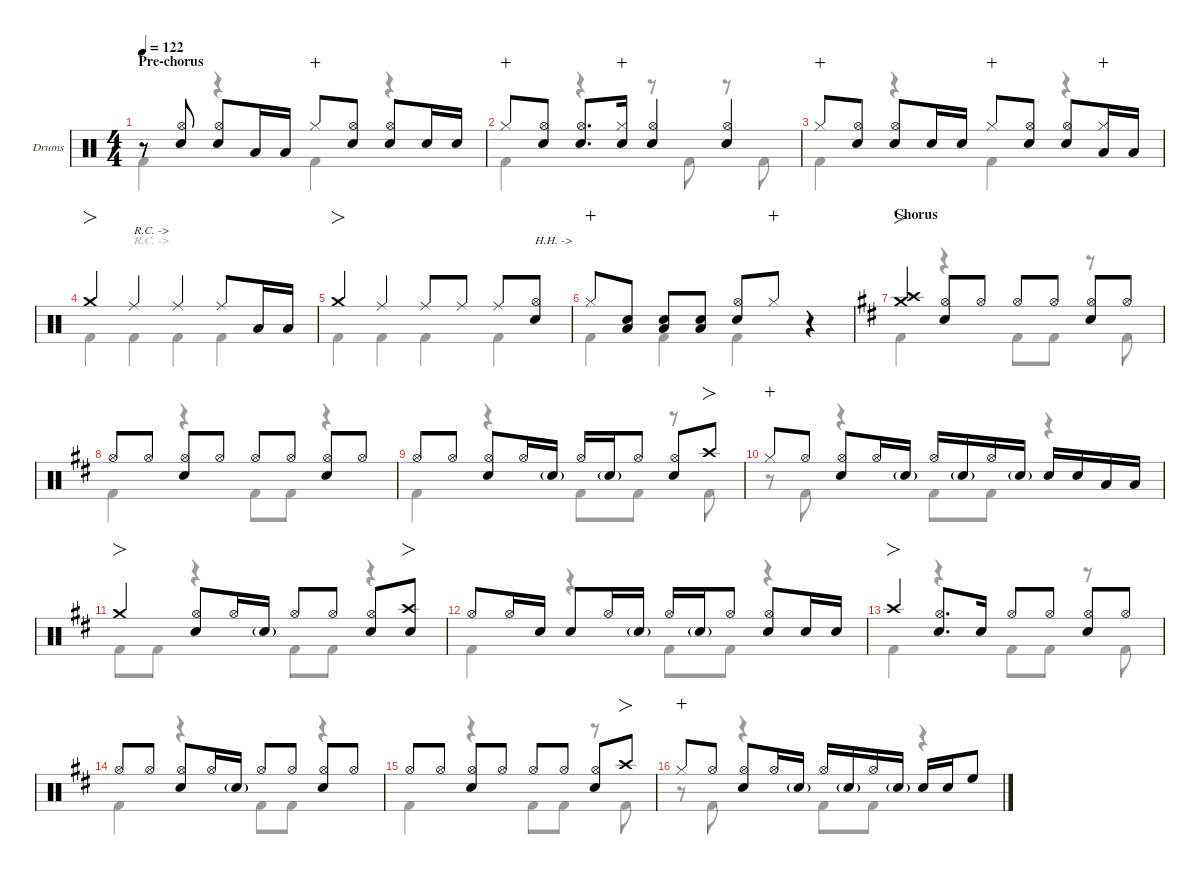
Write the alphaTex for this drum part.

\defaultSystemsLayout 4
\hideDynamics
\bracketExtendMode nobrackets
\firstSystemTrackNameOrientation horizontal
\track ("Drums" "Drums") {defaultSystemsLayout 4 instrument percussion}
\staff {score}
\articulation defaults
\voice
\ts (4 4)
\section ("" "Pre-chorus")
\tempo 122
\clef neutral
\scale
0.348105
\ks c
r.8{dy f beam Up} ("Hi-Hat (open)" "Snare (hit) 2").8{beam Up beam split} ("Hi-Hat (open)" "Snare (hit) 2").8{beam Up} "Low Tom (hit)".16{beam Up} "Low Tom (hit)".16{beam Up} "Hi-Hat (closed)".8{dy mp wahc beam Up} ("Hi-Hat (open)" "Snare (hit) 2").8{dy f beam Up beam split} ("Hi-Hat (open)" "Snare (hit) 2").8{beam Up} "Snare (hit) 2".16{beam Up} "Snare (hit) 2".16{dy mf beam Up} |
\scale
0.325947 "Hi-Hat (closed)".8{dy mp wahc beam Up} ("Hi-Hat (open)" "Snare (hit) 2").8{dy f beam Up beam split} ("Hi-Hat (open)" "Snare (hit) 2").8{d beam Up} ("Snare (hit) 2" "Hi-Hat (closed)").16{dy mf wahc beam Up} ("Hi-Hat (open)" "Snare (hit) 2").4{dy f beam Up} ("Hi-Hat (open)" "Snare (hit) 2").4{beam Up} |
\scale
0.325947 "Hi-Hat (closed)".8{dy mp wahc beam Up} ("Hi-Hat (open)" "Snare (hit) 2").8{dy f beam Up beam split} ("Hi-Hat (open)" "Snare (hit) 2").8{beam Up} "Snare (hit) 2".16{beam Up} "Snare (hit) 2".16{dy mf beam Up} "Hi-Hat (closed)".8{dy mp wahc beam Up} ("Hi-Hat (open)" "Snare (hit) 2").8{dy f beam Up beam split} ("Hi-Hat (open)" "Snare (hit) 2").8{beam Up} ("Low Tom (hit)" "Hi-Hat (closed)").16{wahc beam Up} "Low Tom (hit)".16{beam Up} |
\scale
0.348105 "Crash medium (hit)".4{fo beam Up} "Ride (middle)".4{txt "R.C. ->" beam Up} "Ride (middle)".4{beam Up} "Ride (middle)".8{beam Up} "Low Tom (hit)".16{beam Up} "Low Tom (hit)".16{beam Up} |
\scale
0.325947 "Crash medium (hit)".4{fo beam Up} "Ride (middle)".4{beam Up} "Ride (middle)".8{beam Up} "Ride (middle)".8{dy mf beam Up} "Ride (middle)".8{dy f beam Up} ("Hi-Hat (open)" "Snare (hit) 2").8{txt "H.H. ->" beam Up} |
\scale
0.325947 "Hi-Hat (closed)".8{dy mp wahc beam Up} ("Snare (hit) 2" "Low Tom (hit)").8{dy f beam Up} ("Snare (hit) 2" "Low Tom (hit)").8{beam Up} ("Snare (hit) 2" "Low Tom (hit)").8{beam Up} ("Hi-Hat (open)" "Snare (hit) 2").8{beam Up} "Hi-Hat (closed)".8{dy mp wahc beam Up} r.4{beam Up} |
\section ("" "Chorus")
\scale
0.266618
\ks d
("Crash high (hit)"{acc forcenatural} "Crash medium (hit)"{acc forcenatural}).4{fo dy f beam Up} ("Hi-Hat (open)"{acc forcenatural} "Snare (hit) 2"{acc forcenatural}).8{beam Up} "Hi-Hat (open)"{acc forcenatural}.8{dy mf beam Up} "Hi-Hat (open)"{acc forcenatural}.8{dy f beam Up} "Hi-Hat (open)"{acc forcenatural}.8{dy mf beam Up} ("Hi-Hat (open)"{acc forcenatural} "Snare (hit) 2"{acc forcenatural}).8{dy f beam Up} "Hi-Hat (open)"{acc forcenatural}.8{dy mf beam Up} |
\scale
0.244461 "Hi-Hat (open)"{acc forcenatural}.8{dy f beam Up} "Hi-Hat (open)"{acc forcenatural}.8{dy mf beam Up} ("Hi-Hat (open)"{acc forcenatural} "Snare (hit) 2"{acc forcenatural}).8{dy f beam Up} "Hi-Hat (open)"{acc forcenatural}.8{dy mf beam Up} "Hi-Hat (open)"{acc forcenatural}.8{dy f beam Up} "Hi-Hat (open)"{acc forcenatural}.8{dy mf beam Up} ("Hi-Hat (open)"{acc forcenatural} "Snare (hit) 2"{acc forcenatural}).8{dy f beam Up} "Hi-Hat (open)"{acc forcenatural}.8{dy mf beam Up} |
\scale
0.24446 "Hi-Hat (open)"{acc forcenatural}.8{dy f beam Up} "Hi-Hat (open)"{acc forcenatural}.8{dy mf beam Up beam split} ("Hi-Hat (open)"{acc forcenatural} "Snare (hit) 2"{acc forcenatural}).8{dy f beam Up} "Hi-Hat (open)"{acc forcenatural}.16{dy mf beam Up} "Snare (hit) 2"{g acc forcenatural}.16{beam Up} "Hi-Hat (open)"{acc forcenatural}.16{dy f beam Up} "Snare (hit) 2"{g acc forcenatural}.16{dy mf beam Up} "Hi-Hat (open)"{acc forcenatural}.8{beam Up beam split} ("Hi-Hat (open)"{acc forcenatural} "Snare (hit) 2"{acc forcenatural}).8{dy f beam Up} "Crash high (hit)"{acc forcenatural}.8{fo beam Up} |
\scale
0.244461 "Hi-Hat (closed)"{acc forcenatural}.8{dy mp wahc beam Up} "Hi-Hat (open)"{acc forcenatural}.8{dy mf beam Up beam split} ("Hi-Hat (open)"{acc forcenatural} "Snare (hit) 2"{acc forcenatural}).8{dy f beam Up} "Hi-Hat (open)"{acc forcenatural}.16{dy mf beam Up} "Snare (hit) 2"{g acc forcenatural}.16{beam Up} "Hi-Hat (open)"{acc forcenatural}.16{dy f beam Up} "Snare (hit) 2"{g acc forcenatural}.16{dy mf beam Up} "Hi-Hat (open)"{acc forcenatural}.16{beam Up beam merge} "Snare (hit) 2"{g acc forcenatural}.16{beam Up beam split} "Snare (hit) 2"{acc forcenatural}.16{dy f beam Up} "Snare (hit) 2"{acc forcenatural}.16{dy mf beam Up} "Low Tom (hit)"{acc forcenatural}.16{beam Up} "Low Tom (hit)"{acc forcenatural}.16{beam Up} |
\scale
0.511079 "Crash medium (hit)"{acc forcenatural}.4{fo dy f beam Up} ("Hi-Hat (open)"{acc forcenatural} "Snare (hit) 2"{acc forcenatural}).8{beam Up} "Hi-Hat (open)"{acc forcenatural}.16{dy mf beam Up} "Snare (hit) 2"{g acc forcenatural}.16{beam Up} "Hi-Hat (open)"{acc forcenatural}.8{dy f beam Up} "Hi-Hat (open)"{acc forcenatural}.8{dy mf beam Up} ("Hi-Hat (open)"{acc forcenatural} "Snare (hit) 2"{acc forcenatural}).8{dy f beam Up} ("Snare (hit) 2"{acc forcenatural} "Crash high (hit)"{acc forcenatural}).8{fo beam Up} |
\scale
0.488921 "Hi-Hat (open)"{acc forcenatural}.8{beam Up} "Hi-Hat (open)"{acc forcenatural}.16{dy mf beam Up} "Snare (hit) 2"{acc forcenatural}.16{beam Up beam split} "Snare (hit) 2"{acc forcenatural}.8{dy f beam Up} "Hi-Hat (open)"{acc forcenatural}.16{dy mf beam Up} "Snare (hit) 2"{g acc forcenatural}.16{beam Up} "Hi-Hat (open)"{acc forcenatural}.16{dy f beam Up} "Snare (hit) 2"{g acc forcenatural}.16{dy mf beam Up} "Hi-Hat (open)"{acc forcenatural}.8{beam Up beam split} ("Hi-Hat (open)"{acc forcenatural} "Snare (hit) 2"{acc forcenatural}).8{dy f beam Up} "Snare (hit) 2"{acc forcenatural}.16{beam Up} "Snare (hit) 2"{acc forcenatural}.16{dy mf beam Up} |
\scale
0.266618 "Crash high (hit)"{acc forcenatural}.4{fo dy f beam Up} ("Hi-Hat (open)"{acc forcenatural} "Snare (hit) 2"{acc forcenatural}).8{d beam Up} "Snare (hit) 2"{acc forcenatural}.16{beam Up} "Hi-Hat (open)"{acc forcenatural}.8{beam Up} "Hi-Hat (open)"{acc forcenatural}.8{dy mf beam Up} ("Hi-Hat (open)"{acc forcenatural} "Snare (hit) 2"{acc forcenatural}).8{dy f beam Up} "Hi-Hat (open)"{acc forcenatural}.8{dy mf beam Up} |
\scale
0.244461 "Hi-Hat (open)"{acc forcenatural}.8{dy f beam Up} "Hi-Hat (open)"{acc forcenatural}.8{dy mf beam Up beam split} ("Hi-Hat (open)"{acc forcenatural} "Snare (hit) 2"{acc forcenatural}).8{dy f beam Up} "Hi-Hat (open)"{acc forcenatural}.16{dy mf beam Up} "Snare (hit) 2"{g acc forcenatural}.16{beam Up} "Hi-Hat (open)"{acc forcenatural}.8{dy f beam Up} "Hi-Hat (open)"{acc forcenatural}.8{dy mf beam Up} ("Hi-Hat (open)"{acc forcenatural} "Snare (hit) 2"{acc forcenatural}).8{dy f beam Up} "Hi-Hat (open)"{acc forcenatural}.8{dy mf beam Up} |
\scale
0.24446 "Hi-Hat (open)"{acc forcenatural}.8{dy f beam Up} "Hi-Hat (open)"{acc forcenatural}.8{dy mf beam Up} ("Hi-Hat (open)"{acc forcenatural} "Snare (hit) 2"{acc forcenatural}).8{dy f beam Up} "Hi-Hat (open)"{acc forcenatural}.8{dy mf beam Up} "Hi-Hat (open)"{acc forcenatural}.8{dy f beam Up} "Hi-Hat (open)"{acc forcenatural}.8{dy mf beam Up} ("Hi-Hat (open)"{acc forcenatural} "Snare (hit) 2"{acc forcenatural}).8{dy f beam Up} "Crash high (hit)"{acc forcenatural}.8{fo beam Up} |
\scale
0.244461 "Hi-Hat (closed)"{acc forcenatural}.8{dy mp wahc beam Up} "Hi-Hat (open)"{acc forcenatural}.8{dy mf beam Up beam split} ("Hi-Hat (open)"{acc forcenatural} "Snare (hit) 2"{acc forcenatural}).8{dy f beam Up} "Hi-Hat (open)"{acc forcenatural}.16{dy mf beam Up} "Snare (hit) 2"{g acc forcenatural}.16{beam Up} "Hi-Hat (open)"{acc forcenatural}.16{dy f beam Up} "Snare (hit) 2"{g acc forcenatural}.16{dy mf beam Up} "Hi-Hat (open)"{acc forcenatural}.16{beam Up beam merge} "Snare (hit) 2"{g acc forcenatural}.16{beam Up beam split} "Snare (hit) 2"{acc forcenatural}.16{dy f beam Up} "Snare (hit) 2"{acc forcenatural}.16{dy mf beam Up} "High Floor Tom (hit)"{acc forcenatural}.8{dy f beam Up}
\voice
\clef neutral
\ottava regular
\simile none
\scale
0.348105
\ks c "Kick (hit) 2".4{dy f beam Down}
r.4{beam Down} "Kick (hit) 2".4{beam Down} r.4{beam Down} |
\scale
0.325947 "Kick (hit) 2".4{beam Down} r.4{beam Down} r.8{beam Down} "Kick (hit) 2".8{beam Down} r.8{beam Down} "Kick (hit) 2".8{beam Down} |
\scale
0.325947 "Kick (hit) 2".4{beam Down} r.4{beam Down} "Kick (hit) 2".4{beam Down} r.4{beam Down} |
\scale
0.348105 "Kick (hit) 2".4{beam Down} "Kick (hit) 2".4{txt "R.C. ->" beam Down} "Kick (hit) 2".4{beam Down} "Kick (hit) 2".4{beam Down} |
\scale
0.325947 "Kick (hit) 2".4{beam Down} "Kick (hit) 2".4{beam Down} "Kick (hit) 2".4{beam Down} "Kick (hit) 2".4{beam Down} |
\scale
0.325947 "Kick (hit) 2".4{beam Down} "Kick (hit) 2".4{beam Down} "Kick (hit) 2".4{beam Down} r.4{beam Down} |
\scale
0.266618
\ks d "Kick (hit) 2"{acc forcenatural}.4{beam Down}
r.4{beam Down} "Kick (hit) 2"{acc forcenatural}.8{beam Down} "Kick (hit) 2"{acc forcenatural}.8{beam Down} r.8{beam Down} "Kick (hit) 2"{acc forcenatural}.8{beam Down} |
\scale
0.244461 "Kick (hit) 2"{acc forcenatural}.4{beam Down} r.4{beam Down} "Kick (hit) 2"{acc forcenatural}.8{beam Down} "Kick (hit) 2"{acc forcenatural}.8{beam Down} r.4{beam Down} |
\scale
0.24446 "Kick (hit) 2"{acc forcenatural}.4{beam Down} r.4{beam Down} "Kick (hit) 2"{acc forcenatural}.8{beam Down} "Kick (hit) 2"{acc forcenatural}.8{beam Down} r.8{beam Down} "Kick (hit) 2"{acc forcenatural}.8{beam Down} |
\scale
0.244461 r.8{beam Down} "Kick (hit) 2"{acc forcenatural}.8{beam Down} r.4{beam Down} "Kick (hit) 2"{acc forcenatural}.8{beam Down} "Kick (hit) 2"{acc forcenatural}.8{beam Down} r.4{beam Down} |
\scale
0.511079 "Kick (hit) 2"{acc forcenatural}.8{beam Down} "Kick (hit) 2"{acc forcenatural}.8{beam Down} r.4{beam Down} "Kick (hit) 2"{acc forcenatural}.8{beam Down} "Kick (hit) 2"{acc forcenatural}.8{beam Down} r.4{beam Down} |
\scale
0.488921 "Kick (hit) 2"{acc forcenatural}.4{beam Down} r.4{beam Down} "Kick (hit) 2"{acc forcenatural}.8{beam Down} "Kick (hit) 2"{acc forcenatural}.8{beam Down} r.4{beam Down} |
\scale
0.266618 "Kick (hit) 2"{acc forcenatural}.4{beam Down} r.4{beam Down} "Kick (hit) 2"{acc forcenatural}.8{beam Down} "Kick (hit) 2"{acc forcenatural}.8{beam Down} r.8{beam Down} "Kick (hit) 2"{acc forcenatural}.8{beam Down} |
\scale
0.244461 "Kick (hit) 2"{acc forcenatural}.4{beam Down} r.4{beam Down} "Kick (hit) 2"{acc forcenatural}.8{beam Down} "Kick (hit) 2"{acc forcenatural}.8{beam Down} r.4{beam Down} |
\scale
0.24446 "Kick (hit) 2"{acc forcenatural}.4{beam Down} r.4{beam Down} "Kick (hit) 2"{acc forcenatural}.8{beam Down} "Kick (hit) 2"{acc forcenatural}.8{beam Down} r.8{beam Down} "Kick (hit) 2"{acc forcenatural}.8{beam Down} |
\scale
0.244461 r.8{beam Down} "Kick (hit) 2"{acc forcenatural}.8{beam Down} r.4{beam Down} "Kick (hit) 2"{acc forcenatural}.8{beam Down} "Kick (hit) 2"{acc forcenatural}.8{beam Down} r.4{beam Down}
